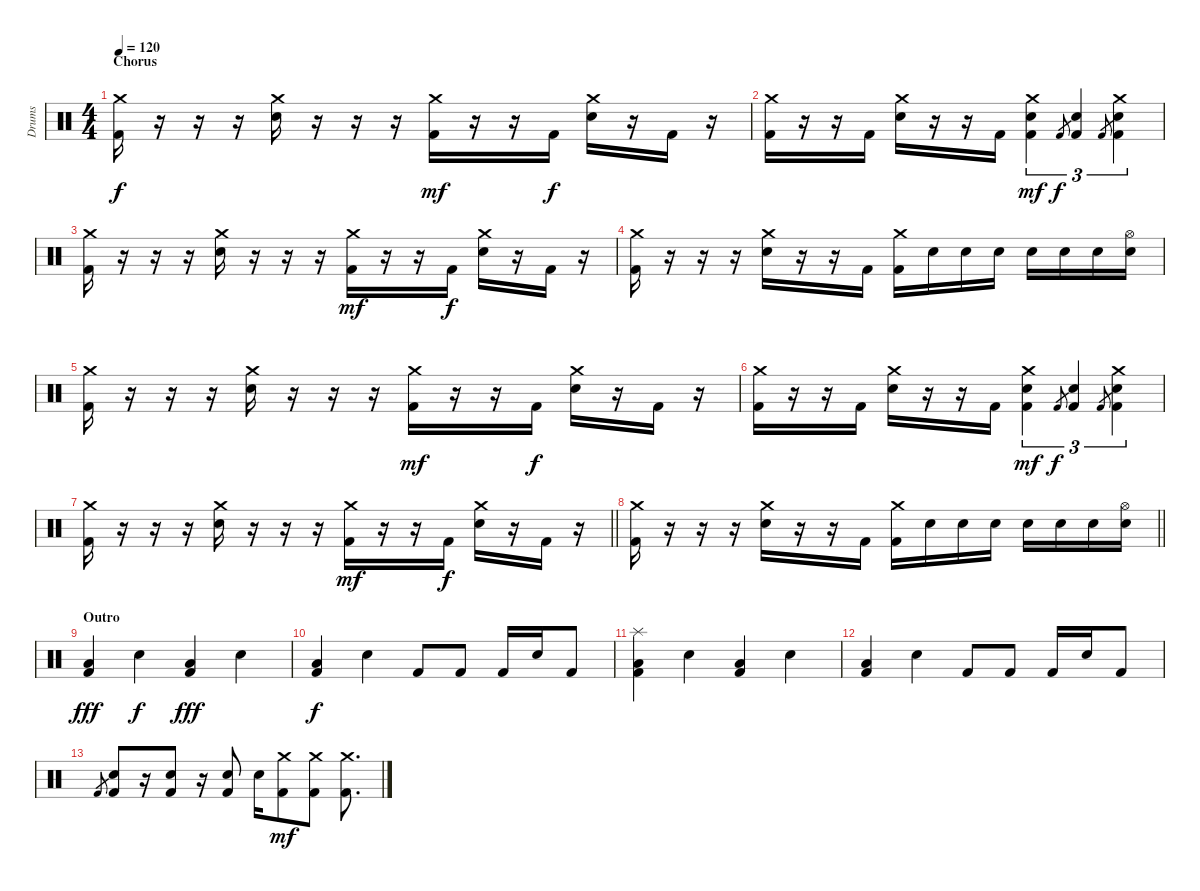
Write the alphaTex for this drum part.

\track ("Drums" "Drums") {instrument percussion}
\staff {score}
\articulation defaults
\ts (4 4)
\section ("" "Chorus")
\tempo 120
\clef neutral
\ks c
("Crash medium (hit)" "Kick (hit) 2").16{dy f} r.16 r.16 r.16 ("Crash medium (hit)" "Electric Snare (hit)").16 r.16 r.16 r.16 ("Crash medium (hit)" "Kick (hit) 2").16{dy mf} r.16 r.16 "Kick (hit) 2".16{dy f} ("Crash medium (hit)" "Electric Snare (hit)").16 r.16 "Kick (hit) 2".16 r.16 |
("Crash medium (hit)" "Kick (hit) 2").16 r.16 r.16 "Kick (hit) 2".16 ("Crash medium (hit)" "Electric Snare (hit)").16 r.16 r.16 "Kick (hit) 2".16 ("Crash medium (hit)" "Kick (hit) 2" "Electric Snare (hit)").4{tu (3 2) dy mf} "Kick (hit) 2".8{gr dy f} ("Kick (hit) 2" "Electric Snare (hit)").4{tu (3 2)} "Kick (hit) 2".8{gr} ("Crash medium (hit)" "Kick (hit) 2" "Electric Snare (hit)").4{tu (3 2)} |
("Crash medium (hit)" "Kick (hit) 2").16 r.16 r.16 r.16 ("Crash medium (hit)" "Electric Snare (hit)").16 r.16 r.16 r.16 ("Crash medium (hit)" "Kick (hit) 2").16{dy mf} r.16 r.16 "Kick (hit) 2".16{dy f} ("Crash medium (hit)" "Electric Snare (hit)").16 r.16 "Kick (hit) 2".16 r.16 |
("Crash medium (hit)" "Kick (hit) 2").16 r.16 r.16 r.16 ("Crash medium (hit)" "Electric Snare (hit)").16 r.16 r.16 "Kick (hit) 2".16 ("Crash medium (hit)" "Kick (hit) 2").16 "Electric Snare (hit)".16 "Electric Snare (hit)".16 "Electric Snare (hit)".16 "Electric Snare (hit)".16 "Electric Snare (hit)".16 "Electric Snare (hit)".16 ("Hi-Hat (open)" "Electric Snare (hit)").16 |
("Crash medium (hit)" "Kick (hit) 2").16 r.16 r.16 r.16 ("Crash medium (hit)" "Electric Snare (hit)").16 r.16 r.16 r.16 ("Crash medium (hit)" "Kick (hit) 2").16{dy mf} r.16 r.16 "Kick (hit) 2".16{dy f} ("Crash medium (hit)" "Electric Snare (hit)").16 r.16 "Kick (hit) 2".16 r.16 |
("Crash medium (hit)" "Kick (hit) 2").16 r.16 r.16 "Kick (hit) 2".16 ("Crash medium (hit)" "Electric Snare (hit)").16 r.16 r.16 "Kick (hit) 2".16 ("Crash medium (hit)" "Kick (hit) 2" "Electric Snare (hit)").4{tu (3 2) dy mf} "Kick (hit) 2".8{gr dy f} ("Kick (hit) 2" "Electric Snare (hit)").4{tu (3 2)} "Kick (hit) 2".8{gr} ("Crash medium (hit)" "Kick (hit) 2" "Electric Snare (hit)").4{tu (3 2)} |
\barLineRight lightlight
("Crash medium (hit)" "Kick (hit) 2").16 r.16 r.16 r.16 ("Crash medium (hit)" "Electric Snare (hit)").16 r.16 r.16 r.16 ("Crash medium (hit)" "Kick (hit) 2").16{dy mf} r.16 r.16 "Kick (hit) 2".16{dy f} ("Crash medium (hit)" "Electric Snare (hit)").16 r.16 "Kick (hit) 2".16 r.16 |
\barLineRight lightlight
("Crash medium (hit)" "Kick (hit) 2").16 r.16 r.16 r.16 ("Crash medium (hit)" "Electric Snare (hit)").16 r.16 r.16 "Kick (hit) 2".16 ("Crash medium (hit)" "Kick (hit) 2").16 "Electric Snare (hit)".16 "Electric Snare (hit)".16 "Electric Snare (hit)".16 "Electric Snare (hit)".16 "Electric Snare (hit)".16 "Electric Snare (hit)".16 ("Hi-Hat (open)" "Electric Snare (hit)").16 |
\section ("" "Outro")
("Kick (hit) 2" "Low Floor Tom (hit)").4{dy fff} "Electric Snare (hit)".4{dy f} ("Kick (hit) 2" "Low Floor Tom (hit)").4{dy fff} "Electric Snare (hit)".4 |
("Kick (hit) 2" "Low Floor Tom (hit)").4{dy f} "Electric Snare (hit)".4 "Kick (hit) 2".8 "Kick (hit) 2".8 "Kick (hit) 2".16 "Electric Snare (hit)".16 "Kick (hit) 2".8 |
("Splash (hit)" "Kick (hit) 2" "Low Floor Tom (hit)").4 "Electric Snare (hit)".4 ("Kick (hit) 2" "Low Floor Tom (hit)").4 "Electric Snare (hit)".4 |
("Kick (hit) 2" "Low Floor Tom (hit)").4 "Electric Snare (hit)".4 "Kick (hit) 2".8 "Kick (hit) 2".8 "Kick (hit) 2".16 "Electric Snare (hit)".16 "Kick (hit) 2".8 |
"Kick (hit) 2".8{gr} ("Kick (hit) 2" "Electric Snare (hit)").8 r.16 ("Kick (hit) 2" "Electric Snare (hit)").8 r.16 ("Kick (hit) 2" "Electric Snare (hit)").8 "Electric Snare (hit)".16 ("Kick (hit) 2" "Crash medium (hit)").8{dy mf} ("Kick (hit) 2" "Crash medium (hit)").8 ("Kick (hit) 2" "Crash medium (hit)").8{d}
